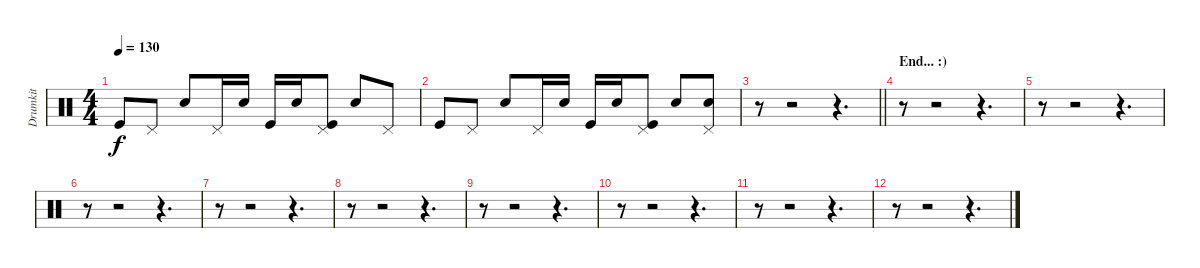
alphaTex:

\track ("Drumkit" "Drumkit") {instrument percussion}
\staff {score}
\articulation defaults
\ts (4 4)
\tempo 130
\clef neutral
\ks c "Kick (hit)".8{dy f} "Pedal Hi-Hat (hit)".8 "Snare (hit) 2".8 "Pedal Hi-Hat (hit)".16 "Snare (hit) 2".16 "Kick (hit)".16 "Snare (hit) 2".16
("Kick (hit)" "Pedal Hi-Hat (hit)").8 "Snare (hit) 2".8 "Pedal Hi-Hat (hit)".8 |
"Kick (hit)".8 "Pedal Hi-Hat (hit)".8 "Snare (hit) 2".8 "Pedal Hi-Hat (hit)".16 "Snare (hit) 2".16 "Kick (hit)".16 "Snare (hit) 2".16 ("Kick (hit)" "Pedal Hi-Hat (hit)").8 "Snare (hit) 2".8 ("Snare (hit) 2" "Pedal Hi-Hat (hit)").8 |
\barLineRight lightlight
r.8 r.2 r.4{d} |
\section ("" "End... :)")
r.8 r.2 r.4{d} |
r.8 r.2 r.4{d} |
r.8 r.2 r.4{d} |
r.8 r.2 r.4{d} |
r.8 r.2 r.4{d} |
r.8 r.2 r.4{d} |
r.8 r.2 r.4{d} |
r.8 r.2 r.4{d} |
r.8 r.2 r.4{d}
